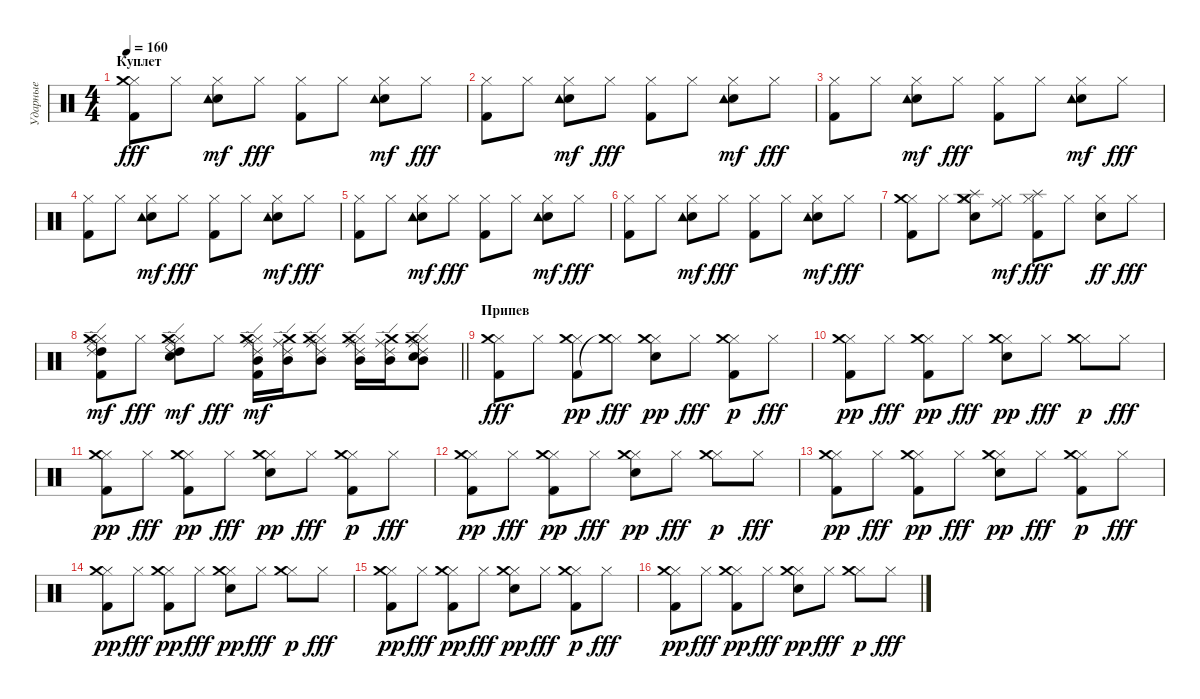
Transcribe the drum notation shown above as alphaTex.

\track ("Ударные" "Ударные") {instrument percussion}
\staff {score}
\articulation defaults
\ts (4 4)
\section ("" "Куплет")
\tempo 160
\clef neutral
\ks c
("Hi-Hat (closed)" "Kick (hit) 2" "Crash medium (hit)").8{dy fff} "Hi-Hat (closed)".8 ("Hi-Hat (closed)" "Snare (hit) 2" "Tambourine (hit)").8{dy mf} "Hi-Hat (closed)".8{dy fff} ("Hi-Hat (closed)" "Kick (hit) 2").8 "Hi-Hat (closed)".8 ("Hi-Hat (closed)" "Snare (hit) 2" "Tambourine (hit)").8{dy mf} "Hi-Hat (closed)".8{dy fff} |
("Hi-Hat (closed)" "Kick (hit) 2").8 "Hi-Hat (closed)".8 ("Hi-Hat (closed)" "Snare (hit) 2" "Tambourine (hit)").8{dy mf} "Hi-Hat (closed)".8{dy fff} ("Hi-Hat (closed)" "Kick (hit) 2").8 "Hi-Hat (closed)".8 ("Hi-Hat (closed)" "Snare (hit) 2" "Tambourine (hit)").8{dy mf} "Hi-Hat (closed)".8{dy fff} |
("Hi-Hat (closed)" "Kick (hit) 2").8 "Hi-Hat (closed)".8 ("Hi-Hat (closed)" "Snare (hit) 2" "Tambourine (hit)").8{dy mf} "Hi-Hat (closed)".8{dy fff} ("Hi-Hat (closed)" "Kick (hit) 2").8 "Hi-Hat (closed)".8 ("Hi-Hat (closed)" "Snare (hit) 2" "Tambourine (hit)").8{dy mf} "Hi-Hat (closed)".8{dy fff} |
("Hi-Hat (closed)" "Kick (hit) 2").8 "Hi-Hat (closed)".8 ("Hi-Hat (closed)" "Snare (hit) 2" "Tambourine (hit)").8{dy mf} "Hi-Hat (closed)".8{dy fff} ("Hi-Hat (closed)" "Kick (hit) 2").8 "Hi-Hat (closed)".8 ("Hi-Hat (closed)" "Snare (hit) 2" "Tambourine (hit)").8{dy mf} "Hi-Hat (closed)".8{dy fff} |
("Hi-Hat (closed)" "Kick (hit) 2").8 "Hi-Hat (closed)".8 ("Hi-Hat (closed)" "Snare (hit) 2" "Tambourine (hit)").8{dy mf} "Hi-Hat (closed)".8{dy fff} ("Hi-Hat (closed)" "Kick (hit) 2").8 "Hi-Hat (closed)".8 ("Hi-Hat (closed)" "Snare (hit) 2" "Tambourine (hit)").8{dy mf} "Hi-Hat (closed)".8{dy fff} |
("Hi-Hat (closed)" "Kick (hit) 2").8 "Hi-Hat (closed)".8 ("Hi-Hat (closed)" "Snare (hit) 2" "Tambourine (hit)").8{dy mf} "Hi-Hat (closed)".8{dy fff} ("Hi-Hat (closed)" "Kick (hit) 2").8 "Hi-Hat (closed)".8 ("Hi-Hat (closed)" "Snare (hit) 2" "Tambourine (hit)").8{dy mf} "Hi-Hat (closed)".8{dy fff} |
("Hi-Hat (closed)" "Kick (hit) 2" "Crash medium (hit)").8 "Hi-Hat (closed)".8 ("Hi-Hat (closed)" "Snare (hit) 2" "Crash medium (hit)" "Splash (hit)").8 ("Hi-Hat (closed)" "Ride (middle)").8{dy mf} ("Hi-Hat (closed)" "Kick (hit) 2" "Splash (hit)").8{dy fff} "Hi-Hat (closed)".8 ("Hi-Hat (closed)" "Snare (hit) 2").8{dy ff} "Hi-Hat (closed)".8{dy fff} |
\barLineRight lightlight
("Hi-Hat (closed)" "Kick (hit) 2" "High Tom (hit)" "Ride (middle)" "Ride (edge) 2" "Crash medium (hit)").8{dy mf} "Hi-Hat (closed)".8{dy fff} ("Hi-Hat (closed)" "Snare (hit) 2" "High Tom (hit)" "Ride (middle)" "Ride (edge) 2" "Crash medium (hit)").8{dy mf} "Hi-Hat (closed)".8{dy fff} ("Hi-Hat (closed)" "Kick (hit) 2" "Mid Tom (hit)" "Ride (middle)" "Ride (edge) 2" "Crash medium (hit)").16{dy mf} ("Mid Tom (hit)" "Ride (middle)" "Ride (edge) 2" "Crash medium (hit)").16 ("Hi-Hat (closed)" "Mid Tom (hit)" "Ride (middle)" "Ride (edge) 2" "Crash medium (hit)").8 ("Hi-Hat (closed)" "Mid Tom (hit)" "Ride (middle)" "Ride (edge) 2" "Crash medium (hit)").16 ("Mid Tom (hit)" "Ride (middle)" "Ride (edge) 2" "Crash medium (hit)").16 ("Hi-Hat (closed)" "Snare (hit) 2" "Mid Tom (hit)" "Ride (middle)" "Ride (edge) 2" "Crash medium (hit)").8 |
\section ("" "Припев")
("Hi-Hat (closed)" "Kick (hit) 2" "Crash medium (hit)").8{dy fff} "Hi-Hat (closed)".8 ("Hi-Hat (closed)" "Kick (hit) 2" "Crash medium (hit)").8{dy pp} ("Hi-Hat (closed)" "Crash medium (hit)"{t}).8{dy fff} ("Hi-Hat (closed)" "Snare (hit) 2" "Crash medium (hit)").8{dy pp} "Hi-Hat (closed)".8{dy fff} ("Hi-Hat (closed)" "Kick (hit) 2" "Crash medium (hit)").8{dy p} "Hi-Hat (closed)".8{dy fff} |
("Hi-Hat (closed)" "Kick (hit) 2" "Crash medium (hit)").8{dy pp} "Hi-Hat (closed)".8{dy fff} ("Hi-Hat (closed)" "Kick (hit) 2" "Crash medium (hit)").8{dy pp} "Hi-Hat (closed)".8{dy fff} ("Hi-Hat (closed)" "Snare (hit) 2" "Crash medium (hit)").8{dy pp} "Hi-Hat (closed)".8{dy fff} ("Hi-Hat (closed)" "Crash medium (hit)").8{dy p} "Hi-Hat (closed)".8{dy fff} |
("Hi-Hat (closed)" "Kick (hit) 2" "Crash medium (hit)").8{dy pp} "Hi-Hat (closed)".8{dy fff} ("Hi-Hat (closed)" "Kick (hit) 2" "Crash medium (hit)").8{dy pp} "Hi-Hat (closed)".8{dy fff} ("Hi-Hat (closed)" "Snare (hit) 2" "Crash medium (hit)").8{dy pp} "Hi-Hat (closed)".8{dy fff} ("Hi-Hat (closed)" "Kick (hit) 2" "Crash medium (hit)").8{dy p} "Hi-Hat (closed)".8{dy fff} |
("Hi-Hat (closed)" "Kick (hit) 2" "Crash medium (hit)").8{dy pp} "Hi-Hat (closed)".8{dy fff} ("Hi-Hat (closed)" "Kick (hit) 2" "Crash medium (hit)").8{dy pp} "Hi-Hat (closed)".8{dy fff} ("Hi-Hat (closed)" "Snare (hit) 2" "Crash medium (hit)").8{dy pp} "Hi-Hat (closed)".8{dy fff} ("Hi-Hat (closed)" "Crash medium (hit)").8{dy p} "Hi-Hat (closed)".8{dy fff} |
("Hi-Hat (closed)" "Kick (hit) 2" "Crash medium (hit)").8{dy pp} "Hi-Hat (closed)".8{dy fff} ("Hi-Hat (closed)" "Kick (hit) 2" "Crash medium (hit)").8{dy pp} "Hi-Hat (closed)".8{dy fff} ("Hi-Hat (closed)" "Snare (hit) 2" "Crash medium (hit)").8{dy pp} "Hi-Hat (closed)".8{dy fff} ("Hi-Hat (closed)" "Kick (hit) 2" "Crash medium (hit)").8{dy p} "Hi-Hat (closed)".8{dy fff} |
("Hi-Hat (closed)" "Kick (hit) 2" "Crash medium (hit)").8{dy pp} "Hi-Hat (closed)".8{dy fff} ("Hi-Hat (closed)" "Kick (hit) 2" "Crash medium (hit)").8{dy pp} "Hi-Hat (closed)".8{dy fff} ("Hi-Hat (closed)" "Snare (hit) 2" "Crash medium (hit)").8{dy pp} "Hi-Hat (closed)".8{dy fff} ("Hi-Hat (closed)" "Crash medium (hit)").8{dy p} "Hi-Hat (closed)".8{dy fff} |
("Hi-Hat (closed)" "Kick (hit) 2" "Crash medium (hit)").8{dy pp} "Hi-Hat (closed)".8{dy fff} ("Hi-Hat (closed)" "Kick (hit) 2" "Crash medium (hit)").8{dy pp} "Hi-Hat (closed)".8{dy fff} ("Hi-Hat (closed)" "Snare (hit) 2" "Crash medium (hit)").8{dy pp} "Hi-Hat (closed)".8{dy fff} ("Hi-Hat (closed)" "Kick (hit) 2" "Crash medium (hit)").8{dy p} "Hi-Hat (closed)".8{dy fff} |
("Hi-Hat (closed)" "Kick (hit) 2" "Crash medium (hit)").8{dy pp} "Hi-Hat (closed)".8{dy fff} ("Hi-Hat (closed)" "Kick (hit) 2" "Crash medium (hit)").8{dy pp} "Hi-Hat (closed)".8{dy fff} ("Hi-Hat (closed)" "Snare (hit) 2" "Crash medium (hit)").8{dy pp} "Hi-Hat (closed)".8{dy fff} ("Hi-Hat (closed)" "Crash medium (hit)").8{dy p} "Hi-Hat (closed)".8{dy fff}
